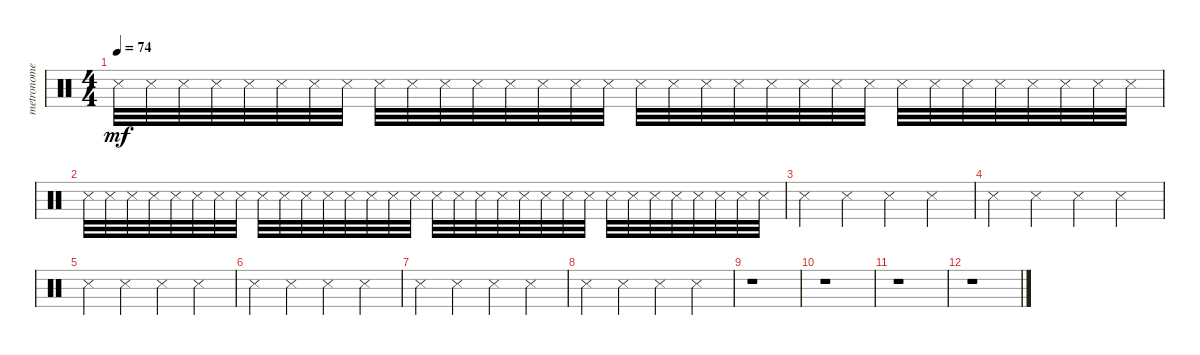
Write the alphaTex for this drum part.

\track ("metronome" "metronome") {instrument percussion}
\staff {score}
\articulation defaults
\ts (4 4)
\tempo 74
\clef neutral
\ks c "Snare (side stick) 3".32{dy mf} "Snare (side stick) 3".32 "Snare (side stick) 3".32 "Snare (side stick) 3".32 "Snare (side stick) 3".32 "Snare (side stick) 3".32 "Snare (side stick) 3".32 "Snare (side stick) 3".32 "Snare (side stick) 3".32 "Snare (side stick) 3".32 "Snare (side stick) 3".32 "Snare (side stick) 3".32 "Snare (side stick) 3".32 "Snare (side stick) 3".32 "Snare (side stick) 3".32 "Snare (side stick) 3".32 "Snare (side stick) 3".32 "Snare (side stick) 3".32 "Snare (side stick) 3".32 "Snare (side stick) 3".32 "Snare (side stick) 3".32 "Snare (side stick) 3".32 "Snare (side stick) 3".32 "Snare (side stick) 3".32 "Snare (side stick) 3".32 "Snare (side stick) 3".32 "Snare (side stick) 3".32 "Snare (side stick) 3".32 "Snare (side stick) 3".32 "Snare (side stick) 3".32 "Snare (side stick) 3".32 "Snare (side stick) 3".32
|
"Snare (side stick) 3".32 "Snare (side stick) 3".32 "Snare (side stick) 3".32 "Snare (side stick) 3".32 "Snare (side stick) 3".32 "Snare (side stick) 3".32 "Snare (side stick) 3".32 "Snare (side stick) 3".32 "Snare (side stick) 3".32 "Snare (side stick) 3".32 "Snare (side stick) 3".32 "Snare (side stick) 3".32 "Snare (side stick) 3".32 "Snare (side stick) 3".32 "Snare (side stick) 3".32 "Snare (side stick) 3".32 "Snare (side stick) 3".32 "Snare (side stick) 3".32 "Snare (side stick) 3".32 "Snare (side stick) 3".32 "Snare (side stick) 3".32 "Snare (side stick) 3".32 "Snare (side stick) 3".32 "Snare (side stick) 3".32 "Snare (side stick) 3".32 "Snare (side stick) 3".32 "Snare (side stick) 3".32 "Snare (side stick) 3".32 "Snare (side stick) 3".32 "Snare (side stick) 3".32 "Snare (side stick) 3".32 "Snare (side stick) 3".32 |
"Snare (side stick) 3".4 "Snare (side stick) 3".4 "Snare (side stick) 3".4 "Snare (side stick) 3".4 |
"Snare (side stick) 3".4 "Snare (side stick) 3".4 "Snare (side stick) 3".4 "Snare (side stick) 3".4 |
"Snare (side stick) 3".4 "Snare (side stick) 3".4 "Snare (side stick) 3".4 "Snare (side stick) 3".4 |
"Snare (side stick) 3".4 "Snare (side stick) 3".4 "Snare (side stick) 3".4 "Snare (side stick) 3".4 |
"Snare (side stick) 3".4 "Snare (side stick) 3".4 "Snare (side stick) 3".4 "Snare (side stick) 3".4 |
"Snare (side stick) 3".4 "Snare (side stick) 3".4 "Snare (side stick) 3".4 "Snare (side stick) 3".4 |
r.1 |
r.1 |
r.1 |
r.1
